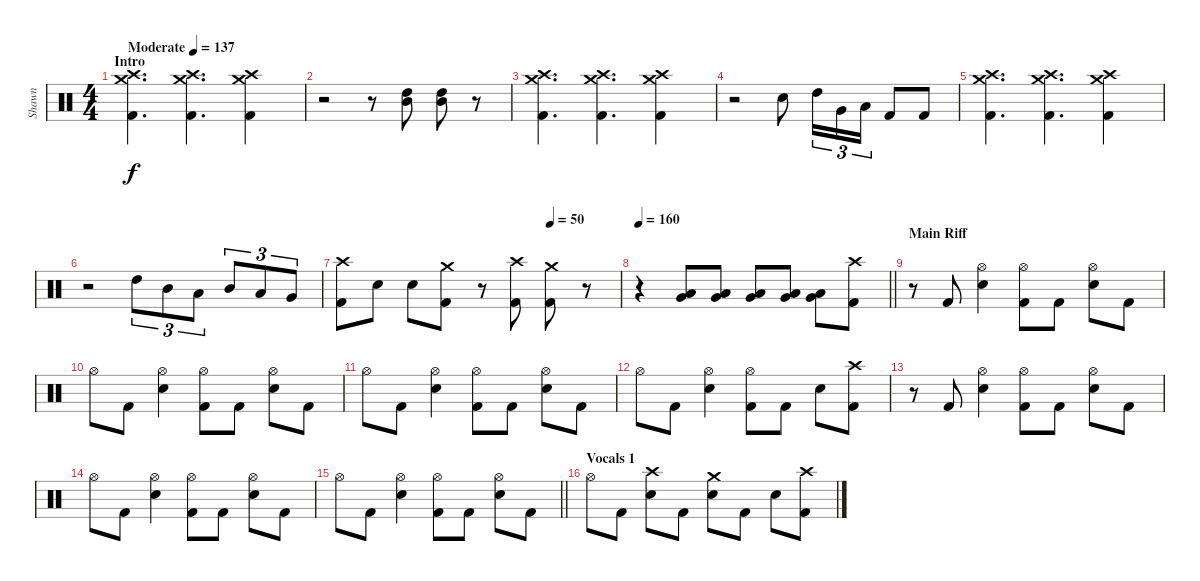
\track ("Shawn" "Shawn") {instrument percussion}
\staff {score}
\articulation defaults
\ts (4 4)
\section ("" "Intro")
\tempo (137 "Moderate")
\clef neutral
\ks c
("Crash high (hit)" "Crash medium (hit)" "Kick (hit) 2").4{d dy f} ("Crash high (hit)" "Kick (hit) 2" "Crash medium (hit)").4{d} ("Crash high (hit)" "Crash medium (hit)" "Kick (hit) 2").4 |
r.2 r.8 ("High Tom (hit)" "Mid Tom (hit)").8 ("High Tom (hit)" "Mid Tom (hit)").8 r.8 |
("Crash high (hit)" "Crash medium (hit)" "Kick (hit) 2").4{d} ("Crash high (hit)" "Kick (hit) 2" "Crash medium (hit)").4{d} ("Crash high (hit)" "Crash medium (hit)" "Kick (hit) 2").4 |
r.2 "Snare (hit) 2".8 "High Tom (hit)".16{tu (3 2)} "Very Low Tom (hit)".16{tu (3 2)} "Low Floor Tom (hit)".16{tu (3 2)} "Kick (hit) 2".8 "Kick (hit) 2".8 |
("Crash high (hit)" "Crash medium (hit)" "Kick (hit) 2").4{d} ("Crash high (hit)" "Kick (hit) 2" "Crash medium (hit)").4{d} ("Crash high (hit)" "Crash medium (hit)" "Kick (hit) 2").4 |
r.2 "High Tom (hit)".8{tu (3 2)} "Mid Tom (hit)".8{tu (3 2)} "Low Tom (hit)".8{tu (3 2)} "Mid Tom (hit)".8{tu (3 2)} "Low Tom (hit)".8{tu (3 2)} "Very Low Tom (hit)".8{tu (3 2)} |
\tempo (50 0.75)
("Crash high (hit)" "Kick (hit) 2").8 "Snare (hit) 2".8 "Snare (hit) 2".8 ("Crash medium (hit)" "Kick (hit) 2").8 r.8 ("Crash high (hit)" "Kick (hit) 2").8 ("Crash medium (hit)" "Kick (hit) 2").8 r.8 |
\tempo 165
\tempo 160
\barLineRight lightlight
r.4 ("Low Floor Tom (hit)" "Very Low Tom (hit)").8 ("Low Floor Tom (hit)" "Very Low Tom (hit)").8 ("Low Floor Tom (hit)" "Very Low Tom (hit)").8 ("Low Floor Tom (hit)" "Very Low Tom (hit)").8 ("Low Floor Tom (hit)" "Very Low Tom (hit)").8 ("Crash high (hit)" "Kick (hit) 2").8 |
\section ("" "Main Riff")
r.8 "Kick (hit) 2".8 ("Hi-Hat (open)" "Snare (hit) 2").4 ("Hi-Hat (open)" "Kick (hit) 2").8 "Kick (hit) 2".8 ("Hi-Hat (open)" "Snare (hit) 2").8 "Kick (hit) 2".8 |
"Hi-Hat (open)".8 "Kick (hit) 2".8 ("Hi-Hat (open)" "Snare (hit) 2").4 ("Hi-Hat (open)" "Kick (hit) 2").8 "Kick (hit) 2".8 ("Hi-Hat (open)" "Snare (hit) 2").8 "Kick (hit) 2".8 |
"Hi-Hat (open)".8 "Kick (hit) 2".8 ("Hi-Hat (open)" "Snare (hit) 2").4 ("Hi-Hat (open)" "Kick (hit) 2").8 "Kick (hit) 2".8 ("Hi-Hat (open)" "Snare (hit) 2").8 "Kick (hit) 2".8 |
"Hi-Hat (open)".8 "Kick (hit) 2".8 ("Hi-Hat (open)" "Snare (hit) 2").4 ("Hi-Hat (open)" "Kick (hit) 2").8 "Kick (hit) 2".8 "Snare (hit) 2".8 ("Crash high (hit)" "Kick (hit) 2").8 |
r.8 "Kick (hit) 2".8 ("Hi-Hat (open)" "Snare (hit) 2").4 ("Hi-Hat (open)" "Kick (hit) 2").8 "Kick (hit) 2".8 ("Hi-Hat (open)" "Snare (hit) 2").8 "Kick (hit) 2".8 |
"Hi-Hat (open)".8 "Kick (hit) 2".8 ("Hi-Hat (open)" "Snare (hit) 2").4 ("Hi-Hat (open)" "Kick (hit) 2").8 "Kick (hit) 2".8 ("Hi-Hat (open)" "Snare (hit) 2").8 "Kick (hit) 2".8 |
\barLineRight lightlight "Hi-Hat (open)".8 "Kick (hit) 2".8
("Hi-Hat (open)" "Snare (hit) 2").4 ("Hi-Hat (open)" "Kick (hit) 2").8 "Kick (hit) 2".8 ("Hi-Hat (open)" "Snare (hit) 2").8 "Kick (hit) 2".8 |
\section ("" "Vocals 1")
"Hi-Hat (open)".8 "Kick (hit) 2".8 ("Crash high (hit)" "Snare (hit) 2").8 "Kick (hit) 2".8 ("Crash medium (hit)" "Snare (hit) 2").8 "Kick (hit) 2".8 "Snare (hit) 2".8 ("Crash high (hit)" "Kick (hit) 2").8
